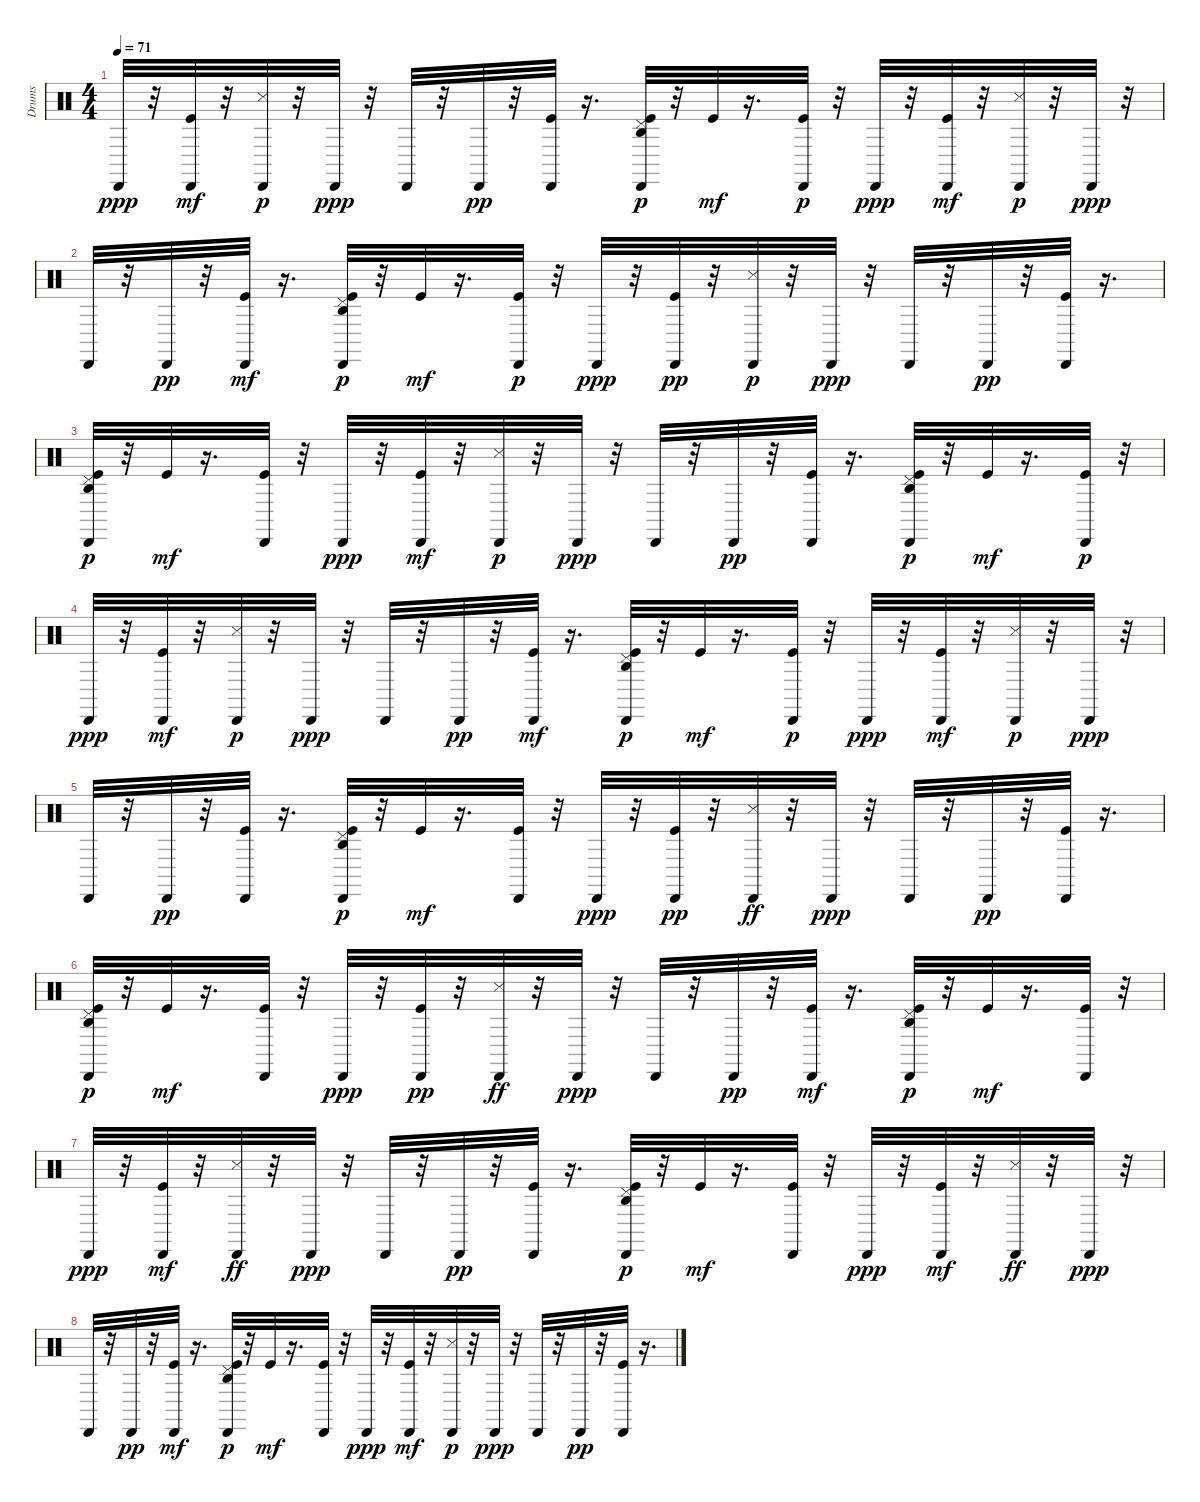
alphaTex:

\track ("Drums" "Drums") {instrument percussion}
\staff {score}
\articulation defaults
\ts (4 4)
\tempo 71
\clef neutral
\ks c "Cabasa (hit)".32{dy ppp}
r.32 ("Cabasa (hit)" "Kick (hit)").32{dy mf} r.32 ("Metronome (hit)" "Cabasa (hit)").32{dy p} r.32 "Cabasa (hit)".32{dy ppp} r.32 "Cabasa (hit)".32 r.32 "Cabasa (hit)".32{dy pp} r.32 ("Kick (hit)" "Cabasa (hit)").32 r.16{d} ("Cabasa (hit)" "Pedal Hi-Hat (hit)" "Kick (hit)" "Agogo high (hit)").32{dy p} r.32 "Kick (hit)".32{dy mf} r.16{d} ("Kick (hit)" "Cabasa (hit)").32{dy p} r.32 "Cabasa (hit)".32{dy ppp} r.32 ("Cabasa (hit)" "Kick (hit)").32{dy mf} r.32 ("Metronome (hit)" "Cabasa (hit)").32{dy p} r.32 "Cabasa (hit)".32{dy ppp} r.32 |
"Cabasa (hit)".32 r.32 "Cabasa (hit)".32{dy pp} r.32 ("Cabasa (hit)" "Kick (hit)").32{dy mf} r.16{d} ("Agogo high (hit)" "Cabasa (hit)" "Pedal Hi-Hat (hit)" "Kick (hit)").32{dy p} r.32 "Kick (hit)".32{dy mf} r.16{d} ("Kick (hit)" "Cabasa (hit)").32{dy p} r.32 "Cabasa (hit)".32{dy ppp} r.32 ("Kick (hit)" "Cabasa (hit)").32{dy pp} r.32 ("Metronome (hit)" "Cabasa (hit)").32{dy p} r.32 "Cabasa (hit)".32{dy ppp} r.32 "Cabasa (hit)".32 r.32 "Cabasa (hit)".32{dy pp} r.32 ("Kick (hit)" "Cabasa (hit)").32 r.16{d} |
("Agogo high (hit)" "Cabasa (hit)" "Pedal Hi-Hat (hit)" "Kick (hit)").32{dy p} r.32 "Kick (hit)".32{dy mf} r.16{d} ("Cabasa (hit)" "Kick (hit)").32 r.32 "Cabasa (hit)".32{dy ppp} r.32 ("Cabasa (hit)" "Kick (hit)").32{dy mf} r.32 ("Metronome (hit)" "Cabasa (hit)").32{dy p} r.32 "Cabasa (hit)".32{dy ppp} r.32 "Cabasa (hit)".32 r.32 "Cabasa (hit)".32{dy pp} r.32 ("Kick (hit)" "Cabasa (hit)").32 r.16{d} ("Cabasa (hit)" "Agogo high (hit)" "Kick (hit)" "Pedal Hi-Hat (hit)").32{dy p} r.32 "Kick (hit)".32{dy mf} r.16{d} ("Kick (hit)" "Cabasa (hit)").32{dy p} r.32 |
"Cabasa (hit)".32{dy ppp} r.32 ("Cabasa (hit)" "Kick (hit)").32{dy mf} r.32 ("Metronome (hit)" "Cabasa (hit)").32{dy p} r.32 "Cabasa (hit)".32{dy ppp} r.32 "Cabasa (hit)".32 r.32 "Cabasa (hit)".32{dy pp} r.32 ("Cabasa (hit)" "Kick (hit)").32{dy mf} r.16{d} ("Kick (hit)" "Agogo high (hit)" "Cabasa (hit)" "Pedal Hi-Hat (hit)").32{dy p} r.32 "Kick (hit)".32{dy mf} r.16{d} ("Kick (hit)" "Cabasa (hit)").32{dy p} r.32 "Cabasa (hit)".32{dy ppp} r.32 ("Cabasa (hit)" "Kick (hit)").32{dy mf} r.32 ("Metronome (hit)" "Cabasa (hit)").32{dy p} r.32 "Cabasa (hit)".32{dy ppp} r.32 |
"Cabasa (hit)".32 r.32 "Cabasa (hit)".32{dy pp} r.32 ("Kick (hit)" "Cabasa (hit)").32 r.16{d} ("Kick (hit)" "Cabasa (hit)" "Pedal Hi-Hat (hit)" "Agogo high (hit)").32{dy p} r.32 "Kick (hit)".32{dy mf} r.16{d} ("Cabasa (hit)" "Kick (hit)").32 r.32 "Cabasa (hit)".32{dy ppp} r.32 ("Kick (hit)" "Cabasa (hit)").32{dy pp} r.32 ("Cabasa (hit)" "Metronome (hit)").32{dy ff} r.32 "Cabasa (hit)".32{dy ppp} r.32 "Cabasa (hit)".32 r.32 "Cabasa (hit)".32{dy pp} r.32 ("Kick (hit)" "Cabasa (hit)").32 r.16{d} |
("Cabasa (hit)" "Agogo high (hit)" "Pedal Hi-Hat (hit)" "Kick (hit)").32{dy p} r.32 "Kick (hit)".32{dy mf} r.16{d} ("Cabasa (hit)" "Kick (hit)").32 r.32 "Cabasa (hit)".32{dy ppp} r.32 ("Kick (hit)" "Cabasa (hit)").32{dy pp} r.32 ("Cabasa (hit)" "Metronome (hit)").32{dy ff} r.32 "Cabasa (hit)".32{dy ppp} r.32 "Cabasa (hit)".32 r.32 "Cabasa (hit)".32{dy pp} r.32 ("Cabasa (hit)" "Kick (hit)").32{dy mf} r.16{d} ("Pedal Hi-Hat (hit)" "Kick (hit)" "Agogo high (hit)" "Cabasa (hit)").32{dy p} r.32 "Kick (hit)".32{dy mf} r.16{d} ("Cabasa (hit)" "Kick (hit)").32 r.32 |
"Cabasa (hit)".32{dy ppp} r.32 ("Cabasa (hit)" "Kick (hit)").32{dy mf} r.32 ("Cabasa (hit)" "Metronome (hit)").32{dy ff} r.32 "Cabasa (hit)".32{dy ppp} r.32 "Cabasa (hit)".32 r.32 "Cabasa (hit)".32{dy pp} r.32 ("Kick (hit)" "Cabasa (hit)").32 r.16{d} ("Kick (hit)" "Agogo high (hit)" "Cabasa (hit)" "Pedal Hi-Hat (hit)").32{dy p} r.32 "Kick (hit)".32{dy mf} r.16{d} ("Cabasa (hit)" "Kick (hit)").32 r.32 "Cabasa (hit)".32{dy ppp} r.32 ("Cabasa (hit)" "Kick (hit)").32{dy mf} r.32 ("Cabasa (hit)" "Metronome (hit)").32{dy ff} r.32 "Cabasa (hit)".32{dy ppp} r.32 |
"Cabasa (hit)".32 r.32 "Cabasa (hit)".32{dy pp} r.32 ("Cabasa (hit)" "Kick (hit)").32{dy mf} r.16{d} ("Kick (hit)" "Agogo high (hit)" "Cabasa (hit)" "Pedal Hi-Hat (hit)").32{dy p} r.32 "Kick (hit)".32{dy mf} r.16{d} ("Cabasa (hit)" "Kick (hit)").32 r.32 "Cabasa (hit)".32{dy ppp} r.32 ("Cabasa (hit)" "Kick (hit)").32{dy mf} r.32 ("Metronome (hit)" "Cabasa (hit)").32{dy p} r.32 "Cabasa (hit)".32{dy ppp} r.32 "Cabasa (hit)".32 r.32 "Cabasa (hit)".32{dy pp} r.32 ("Kick (hit)" "Cabasa (hit)").32 r.16{d}
